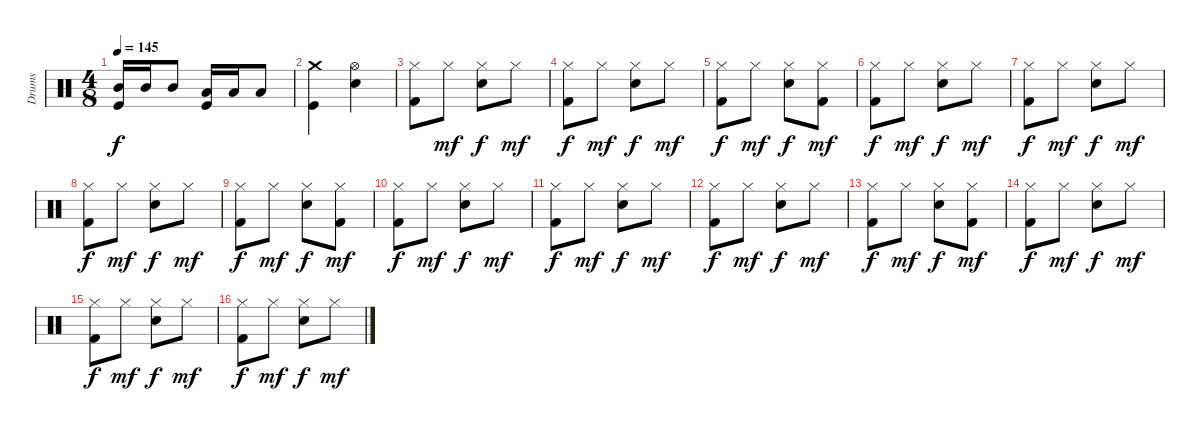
\track ("Drums" "Drums") {instrument percussion}
\staff {score}
\articulation defaults
\ts (4 8)
\tempo 145
\clef neutral
\ks c
("Mid Tom (hit)" "Kick (hit)").16{dy f} "Mid Tom (hit)".16 "Mid Tom (hit)".8 ("Low Tom (hit)" "Kick (hit)").16 "Low Tom (hit)".16 "Low Tom (hit)".8 |
("Crash medium (hit)" "Kick (hit)").4 ("Hi-Hat (open)" "Snare (hit) 2").4 |
("Hi-Hat (closed)" "Kick (hit) 2").8 "Hi-Hat (closed)".8{dy mf} ("Hi-Hat (closed)" "Snare (hit) 2").8{dy f} "Hi-Hat (closed)".8{dy mf} |
("Hi-Hat (closed)" "Kick (hit) 2").8{dy f} "Hi-Hat (closed)".8{dy mf} ("Hi-Hat (closed)" "Snare (hit) 2").8{dy f} "Hi-Hat (closed)".8{dy mf} |
("Hi-Hat (closed)" "Kick (hit) 2").8{dy f} "Hi-Hat (closed)".8{dy mf} ("Hi-Hat (closed)" "Snare (hit) 2").8{dy f} ("Hi-Hat (closed)" "Kick (hit) 2").8{dy mf} |
("Hi-Hat (closed)" "Kick (hit) 2").8{dy f} "Hi-Hat (closed)".8{dy mf} ("Hi-Hat (closed)" "Snare (hit) 2").8{dy f} "Hi-Hat (closed)".8{dy mf} |
("Hi-Hat (closed)" "Kick (hit) 2").8{dy f} "Hi-Hat (closed)".8{dy mf} ("Hi-Hat (closed)" "Snare (hit) 2").8{dy f} "Hi-Hat (closed)".8{dy mf} |
("Hi-Hat (closed)" "Kick (hit) 2").8{dy f} "Hi-Hat (closed)".8{dy mf} ("Hi-Hat (closed)" "Snare (hit) 2").8{dy f} "Hi-Hat (closed)".8{dy mf} |
("Hi-Hat (closed)" "Kick (hit) 2").8{dy f} "Hi-Hat (closed)".8{dy mf} ("Hi-Hat (closed)" "Snare (hit) 2").8{dy f} ("Hi-Hat (closed)" "Kick (hit) 2").8{dy mf} |
("Hi-Hat (closed)" "Kick (hit) 2").8{dy f} "Hi-Hat (closed)".8{dy mf} ("Hi-Hat (closed)" "Snare (hit) 2").8{dy f} "Hi-Hat (closed)".8{dy mf} |
("Hi-Hat (closed)" "Kick (hit) 2").8{dy f} "Hi-Hat (closed)".8{dy mf} ("Hi-Hat (closed)" "Snare (hit) 2").8{dy f} "Hi-Hat (closed)".8{dy mf} |
("Hi-Hat (closed)" "Kick (hit) 2").8{dy f} "Hi-Hat (closed)".8{dy mf} ("Hi-Hat (closed)" "Snare (hit) 2").8{dy f} "Hi-Hat (closed)".8{dy mf} |
("Hi-Hat (closed)" "Kick (hit) 2").8{dy f} "Hi-Hat (closed)".8{dy mf} ("Hi-Hat (closed)" "Snare (hit) 2").8{dy f} ("Hi-Hat (closed)" "Kick (hit) 2").8{dy mf} |
("Hi-Hat (closed)" "Kick (hit) 2").8{dy f} "Hi-Hat (closed)".8{dy mf} ("Hi-Hat (closed)" "Snare (hit) 2").8{dy f} "Hi-Hat (closed)".8{dy mf} |
("Hi-Hat (closed)" "Kick (hit) 2").8{dy f} "Hi-Hat (closed)".8{dy mf} ("Hi-Hat (closed)" "Snare (hit) 2").8{dy f} "Hi-Hat (closed)".8{dy mf} |
("Hi-Hat (closed)" "Kick (hit) 2").8{dy f} "Hi-Hat (closed)".8{dy mf} ("Hi-Hat (closed)" "Snare (hit) 2").8{dy f} "Hi-Hat (closed)".8{dy mf}
